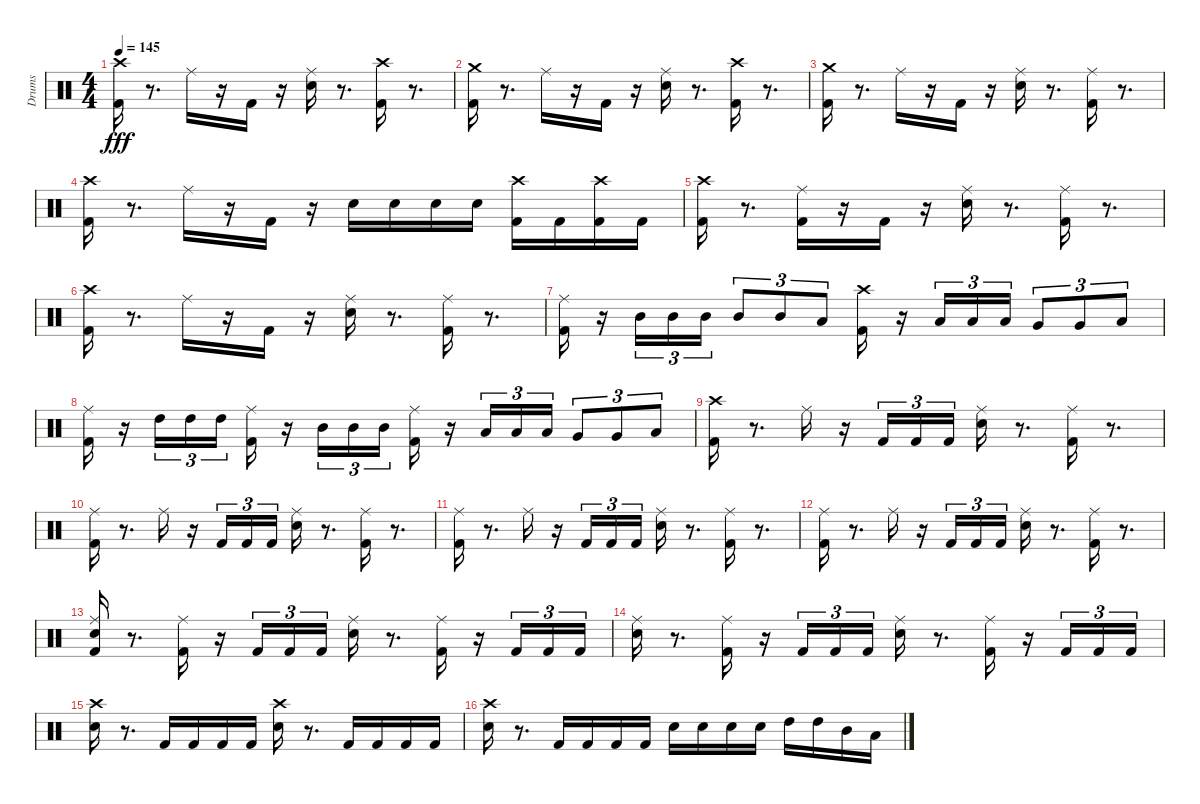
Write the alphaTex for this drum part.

\track ("Drums" "Drums") {instrument percussion}
\staff {score}
\articulation defaults
\ts (4 4)
\tempo 145
\clef neutral
\ks c
("Crash high (hit)" "Kick (hit) 2").16{dy fff} r.8{d} "Ride (middle)".16 r.16 "Kick (hit) 2".16 r.16 ("Ride (middle)" "Electric Snare (hit)").16 r.8{d} ("Crash high (hit)" "Kick (hit) 2").16 r.8{d} |
("Crash medium (hit)" "Kick (hit) 2").16 r.8{d} "Ride (middle)".16 r.16 "Kick (hit) 2".16 r.16 ("Electric Snare (hit)" "Ride (middle)").16 r.8{d} ("Crash high (hit)" "Kick (hit) 2").16 r.8{d} |
("Crash medium (hit)" "Kick (hit) 2").16 r.8{d} "Ride (middle)".16 r.16 "Kick (hit) 2".16 r.16 ("Electric Snare (hit)" "Ride (middle)").16 r.8{d} ("Ride (middle)" "Kick (hit) 2").16 r.8{d} |
("Crash high (hit)" "Kick (hit) 2").16 r.8{d} "Ride (middle)".16 r.16 "Kick (hit) 2".16 r.16 "Electric Snare (hit)".16 "Electric Snare (hit)".16 "Electric Snare (hit)".16 "Electric Snare (hit)".16 ("Crash high (hit)" "Kick (hit) 2").16 "Kick (hit) 2".16 ("Crash high (hit)" "Kick (hit) 2").16 "Kick (hit) 2".16 |
("Crash high (hit)" "Kick (hit) 2").16 r.8{d} ("Kick (hit) 2" "Ride (middle)").16 r.16 "Kick (hit) 2".16 r.16 ("Ride (middle)" "Electric Snare (hit)").16 r.8{d} ("Kick (hit) 2" "Ride (middle)").16 r.8{d} |
("Kick (hit) 2" "Crash high (hit)").16 r.8{d} "Ride (middle)".16 r.16 "Kick (hit) 2".16 r.16 ("Electric Snare (hit)" "Ride (middle)").16 r.8{d} ("Ride (middle)" "Kick (hit) 2").16 r.8{d} |
("Ride (middle)" "Kick (hit) 2").16 r.16 "Mid Tom (hit)".16{tu (3 2)} "Mid Tom (hit)".16{tu (3 2)} "Mid Tom (hit)".16{tu (3 2)} "Mid Tom (hit)".8{tu (3 2)} "Mid Tom (hit)".8{tu (3 2)} "Low Tom (hit)".8{tu (3 2)} ("Crash high (hit)" "Kick (hit) 2").16 r.16 "Low Tom (hit)".16{tu (3 2)} "Low Tom (hit)".16{tu (3 2)} "Low Tom (hit)".16{tu (3 2)} "Very Low Tom (hit)".8{tu (3 2)} "Very Low Tom (hit)".8{tu (3 2)} "Low Floor Tom (hit)".8{tu (3 2)} |
("Kick (hit) 2" "Ride (middle)").16 r.16 "High Tom (hit)".16{tu (3 2)} "High Tom (hit)".16{tu (3 2)} "High Tom (hit)".16{tu (3 2)} ("Kick (hit) 2" "Ride (middle)").16 r.16 "Mid Tom (hit)".16{tu (3 2)} "Mid Tom (hit)".16{tu (3 2)} "Mid Tom (hit)".16{tu (3 2)} ("Kick (hit) 2" "Ride (middle)").16 r.16 "Low Tom (hit)".16{tu (3 2)} "Low Tom (hit)".16{tu (3 2)} "Low Tom (hit)".16{tu (3 2)} "Very Low Tom (hit)".8{tu (3 2)} "Very Low Tom (hit)".8{tu (3 2)} "Low Floor Tom (hit)".8{tu (3 2)} |
("Crash high (hit)" "Kick (hit) 2").16 r.8{d} "Ride (middle)".16 r.16 "Kick (hit) 2".16{tu (3 2)} "Kick (hit) 2".16{tu (3 2)} "Kick (hit) 2".16{tu (3 2)} ("Electric Snare (hit)" "Ride (middle)").16 r.8{d} ("Kick (hit) 2" "Ride (middle)").16 r.8{d} |
("Ride (middle)" "Kick (hit) 2").16 r.8{d} "Ride (middle)".16 r.16 "Kick (hit) 2".16{tu (3 2)} "Kick (hit) 2".16{tu (3 2)} "Kick (hit) 2".16{tu (3 2)} ("Ride (middle)" "Electric Snare (hit)").16 r.8{d} ("Ride (middle)" "Kick (hit) 2").16 r.8{d} |
("Kick (hit) 2" "Ride (middle)").16 r.8{d} "Ride (middle)".16 r.16 "Kick (hit) 2".16{tu (3 2)} "Kick (hit) 2".16{tu (3 2)} "Kick (hit) 2".16{tu (3 2)} ("Electric Snare (hit)" "Ride (middle)").16 r.8{d} ("Kick (hit) 2" "Ride (middle)").16 r.8{d} |
("Kick (hit) 2" "Ride (middle)").16 r.8{d} "Ride (middle)".16 r.16 "Kick (hit) 2".16{tu (3 2)} "Kick (hit) 2".16{tu (3 2)} "Kick (hit) 2".16{tu (3 2)} ("Electric Snare (hit)" "Ride (middle)").16 r.8{d} ("Kick (hit) 2" "Ride (middle)").16 r.8{d} |
("Ride (middle)" "Electric Snare (hit)" "Kick (hit) 2").16 r.8{d} ("Ride (middle)" "Kick (hit) 2").16 r.16 "Kick (hit) 2".16{tu (3 2)} "Kick (hit) 2".16{tu (3 2)} "Kick (hit) 2".16{tu (3 2)} ("Electric Snare (hit)" "Ride (middle)").16 r.8{d} ("Kick (hit) 2" "Ride (middle)").16 r.16 "Kick (hit) 2".16{tu (3 2)} "Kick (hit) 2".16{tu (3 2)} "Kick (hit) 2".16{tu (3 2)} |
("Electric Snare (hit)" "Ride (middle)").16 r.8{d} ("Kick (hit) 2" "Ride (middle)").16 r.16 "Kick (hit) 2".16{tu (3 2)} "Kick (hit) 2".16{tu (3 2)} "Kick (hit) 2".16{tu (3 2)} ("Ride (middle)" "Electric Snare (hit)").16 r.8{d} ("Ride (middle)" "Kick (hit) 2").16 r.16 "Kick (hit) 2".16{tu (3 2)} "Kick (hit) 2".16{tu (3 2)} "Kick (hit) 2".16{tu (3 2)} |
("Electric Snare (hit)" "Crash high (hit)").16 r.8{d} "Kick (hit) 2".16 "Kick (hit) 2".16 "Kick (hit) 2".16 "Kick (hit) 2".16 ("Crash high (hit)" "Electric Snare (hit)").16 r.8{d} "Kick (hit) 2".16 "Kick (hit) 2".16 "Kick (hit) 2".16 "Kick (hit) 2".16 |
("Crash high (hit)" "Electric Snare (hit)").16 r.8{d} "Kick (hit) 2".16 "Kick (hit) 2".16 "Kick (hit) 2".16 "Kick (hit) 2".16 "Electric Snare (hit)".16 "Electric Snare (hit)".16 "Electric Snare (hit)".16 "Electric Snare (hit)".16 "High Tom (hit)".16 "High Tom (hit)".16 "Mid Tom (hit)".16 "Low Tom (hit)".16
